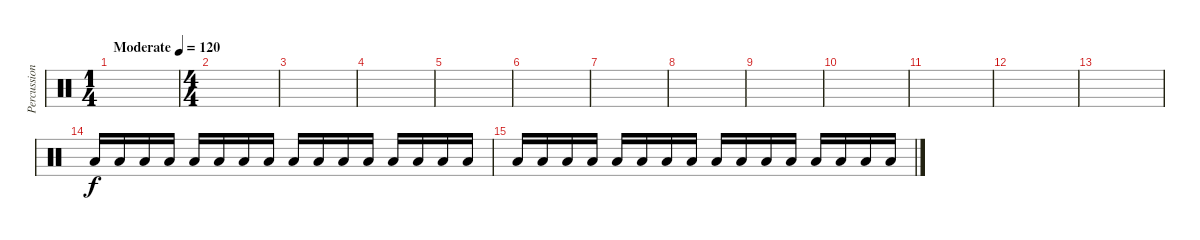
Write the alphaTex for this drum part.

\track ("Percussion" "Percussion") {instrument percussion}
\staff {score}
\articulation defaults
\ts (1 4)
\tempo (120 "Moderate")
\clef neutral
\ks c
|
\ts (4 4)
|
|
|
|
|
|
|
|
|
|
|
|
"Low Floor Tom (hit)".16 "Low Floor Tom (hit)".16 "Low Floor Tom (hit)".16 "Low Floor Tom (hit)".16 "Low Floor Tom (hit)".16 "Low Floor Tom (hit)".16 "Low Floor Tom (hit)".16 "Low Floor Tom (hit)".16 "Low Floor Tom (hit)".16 "Low Floor Tom (hit)".16 "Low Floor Tom (hit)".16 "Low Floor Tom (hit)".16 "Low Floor Tom (hit)".16 "Low Floor Tom (hit)".16 "Low Floor Tom (hit)".16 "Low Floor Tom (hit)".16 |
"Low Floor Tom (hit)".16 "Low Floor Tom (hit)".16 "Low Floor Tom (hit)".16 "Low Floor Tom (hit)".16 "Low Floor Tom (hit)".16 "Low Floor Tom (hit)".16 "Low Floor Tom (hit)".16 "Low Floor Tom (hit)".16 "Low Floor Tom (hit)".16 "Low Floor Tom (hit)".16 "Low Floor Tom (hit)".16 "Low Floor Tom (hit)".16 "Low Floor Tom (hit)".16 "Low Floor Tom (hit)".16 "Low Floor Tom (hit)".16 "Low Floor Tom (hit)".16
